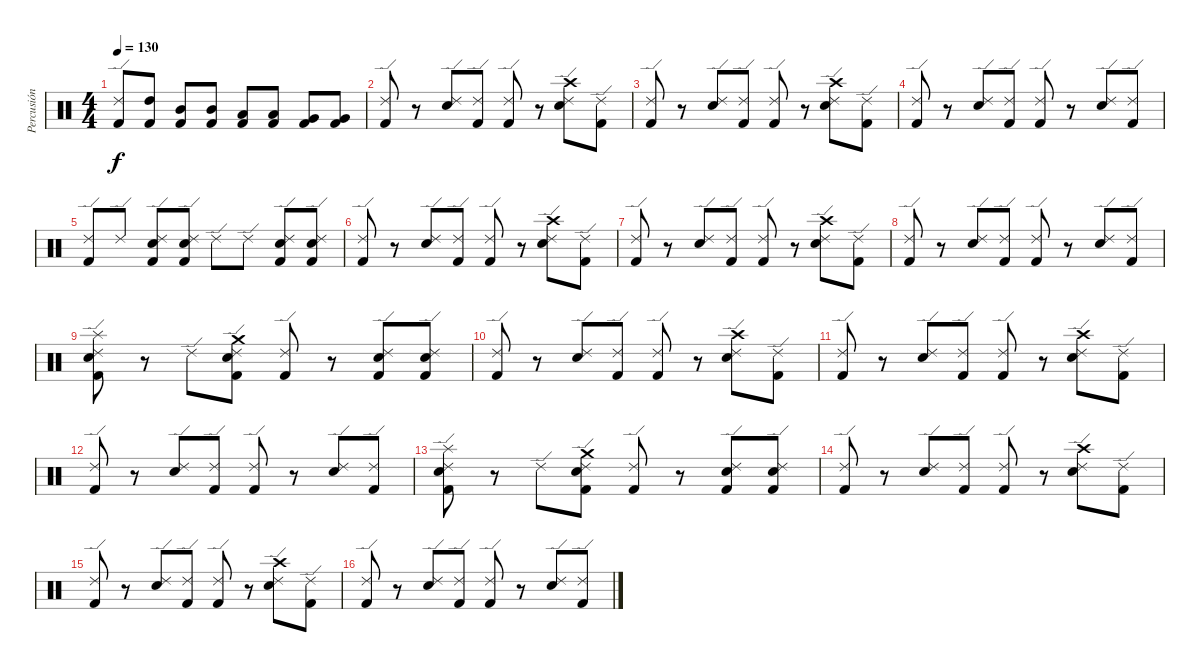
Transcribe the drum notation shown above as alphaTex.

\track ("Percusión" "Percusión") {instrument percussion}
\staff {score}
\articulation defaults
\ts (4 4)
\tempo 130
\clef neutral
\ks c
("Kick (hit) 2" "Ride (edge) 2").8{dy f} ("Kick (hit) 2" "High Tom (hit)").8 ("Kick (hit) 2" "Mid Tom (hit)").8 ("Kick (hit) 2" "Mid Tom (hit)").8 ("Kick (hit) 2" "Low Tom (hit)").8 ("Kick (hit) 2" "Low Tom (hit)").8 ("Kick (hit) 2" "Very Low Tom (hit)").8 ("Kick (hit) 2" "Very Low Tom (hit)").8 |
("Kick (hit) 2" "Ride (edge) 2").8 r.8 ("Snare (hit) 2" "Ride (edge) 2").8 ("Kick (hit) 2" "Ride (edge) 2").8 ("Kick (hit) 2" "Ride (edge) 2").8 r.8 ("Snare (hit) 2" "Crash high (hit)" "Ride (edge) 2").8 ("Kick (hit) 2" "Ride (edge) 2").8 |
("Kick (hit) 2" "Ride (edge) 2").8 r.8 ("Snare (hit) 2" "Ride (edge) 2").8 ("Kick (hit) 2" "Ride (edge) 2").8 ("Kick (hit) 2" "Ride (edge) 2").8 r.8 ("Snare (hit) 2" "Crash high (hit)" "Ride (edge) 2").8 ("Kick (hit) 2" "Ride (edge) 2").8 |
("Kick (hit) 2" "Ride (edge) 2").8 r.8 ("Snare (hit) 2" "Ride (edge) 2").8 ("Kick (hit) 2" "Ride (edge) 2").8 ("Kick (hit) 2" "Ride (edge) 2").8 r.8 ("Snare (hit) 2" "Ride (edge) 2").8 ("Kick (hit) 2" "Ride (edge) 2").8 |
("Kick (hit) 2" "Ride (edge) 2").8 "Ride (edge) 2".8 ("Kick (hit) 2" "Snare (hit) 2" "Ride (edge) 2").8 ("Kick (hit) 2" "Snare (hit) 2" "Ride (edge) 2").8 "Ride (edge) 2".8 "Ride (edge) 2".8 ("Kick (hit) 2" "Snare (hit) 2" "Ride (edge) 2").8 ("Kick (hit) 2" "Snare (hit) 2" "Ride (edge) 2").8 |
("Kick (hit) 2" "Ride (edge) 2").8 r.8 ("Snare (hit) 2" "Ride (edge) 2").8 ("Kick (hit) 2" "Ride (edge) 2").8 ("Kick (hit) 2" "Ride (edge) 2").8 r.8 ("Snare (hit) 2" "Crash high (hit)" "Ride (edge) 2").8 ("Kick (hit) 2" "Ride (edge) 2").8 |
("Kick (hit) 2" "Ride (edge) 2").8 r.8 ("Snare (hit) 2" "Ride (edge) 2").8 ("Kick (hit) 2" "Ride (edge) 2").8 ("Kick (hit) 2" "Ride (edge) 2").8 r.8 ("Snare (hit) 2" "Crash high (hit)" "Ride (edge) 2").8 ("Kick (hit) 2" "Ride (edge) 2").8 |
("Kick (hit) 2" "Ride (edge) 2").8 r.8 ("Snare (hit) 2" "Ride (edge) 2").8 ("Kick (hit) 2" "Ride (edge) 2").8 ("Kick (hit) 2" "Ride (edge) 2").8 r.8 ("Snare (hit) 2" "Ride (edge) 2").8 ("Kick (hit) 2" "Ride (edge) 2").8 |
("Kick (hit) 2" "Snare (hit) 2" "Splash (hit)" "Ride (edge) 2").8 r.8 "Ride (edge) 2".8 ("Kick (hit) 2" "Snare (hit) 2" "Crash medium (hit)" "Ride (edge) 2").8 ("Kick (hit) 2" "Ride (edge) 2").8 r.8 ("Kick (hit) 2" "Snare (hit) 2" "Ride (edge) 2").8 ("Kick (hit) 2" "Snare (hit) 2" "Ride (edge) 2").8 |
("Kick (hit) 2" "Ride (edge) 2").8 r.8 ("Snare (hit) 2" "Ride (edge) 2").8 ("Kick (hit) 2" "Ride (edge) 2").8 ("Kick (hit) 2" "Ride (edge) 2").8 r.8 ("Snare (hit) 2" "Crash high (hit)" "Ride (edge) 2").8 ("Kick (hit) 2" "Ride (edge) 2").8 |
("Kick (hit) 2" "Ride (edge) 2").8 r.8 ("Snare (hit) 2" "Ride (edge) 2").8 ("Kick (hit) 2" "Ride (edge) 2").8 ("Kick (hit) 2" "Ride (edge) 2").8 r.8 ("Snare (hit) 2" "Crash high (hit)" "Ride (edge) 2").8 ("Kick (hit) 2" "Ride (edge) 2").8 |
("Kick (hit) 2" "Ride (edge) 2").8 r.8 ("Snare (hit) 2" "Ride (edge) 2").8 ("Kick (hit) 2" "Ride (edge) 2").8 ("Kick (hit) 2" "Ride (edge) 2").8 r.8 ("Snare (hit) 2" "Ride (edge) 2").8 ("Kick (hit) 2" "Ride (edge) 2").8 |
("Kick (hit) 2" "Snare (hit) 2" "Splash (hit)" "Ride (edge) 2").8 r.8 "Ride (edge) 2".8 ("Kick (hit) 2" "Snare (hit) 2" "Crash medium (hit)" "Ride (edge) 2").8 ("Kick (hit) 2" "Ride (edge) 2").8 r.8 ("Kick (hit) 2" "Snare (hit) 2" "Ride (edge) 2").8 ("Kick (hit) 2" "Snare (hit) 2" "Ride (edge) 2").8 |
("Kick (hit) 2" "Ride (edge) 2").8 r.8 ("Snare (hit) 2" "Ride (edge) 2").8 ("Kick (hit) 2" "Ride (edge) 2").8 ("Kick (hit) 2" "Ride (edge) 2").8 r.8 ("Snare (hit) 2" "Crash high (hit)" "Ride (edge) 2").8 ("Kick (hit) 2" "Ride (edge) 2").8 |
("Kick (hit) 2" "Ride (edge) 2").8 r.8 ("Snare (hit) 2" "Ride (edge) 2").8 ("Kick (hit) 2" "Ride (edge) 2").8 ("Kick (hit) 2" "Ride (edge) 2").8 r.8 ("Snare (hit) 2" "Crash high (hit)" "Ride (edge) 2").8 ("Kick (hit) 2" "Ride (edge) 2").8 |
("Kick (hit) 2" "Ride (edge) 2").8 r.8 ("Snare (hit) 2" "Ride (edge) 2").8 ("Kick (hit) 2" "Ride (edge) 2").8 ("Kick (hit) 2" "Ride (edge) 2").8 r.8 ("Snare (hit) 2" "Ride (edge) 2").8 ("Kick (hit) 2" "Ride (edge) 2").8
